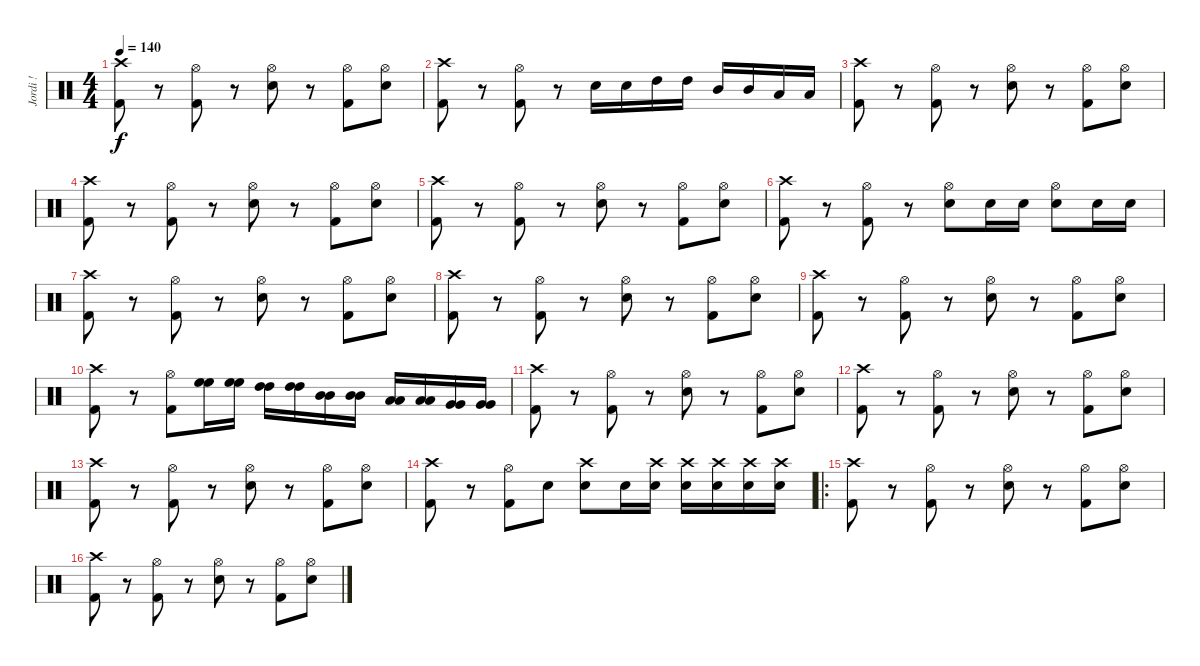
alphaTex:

\track ("Jordi !" "Jordi !") {instrument percussion}
\staff {score}
\articulation defaults
\ts (4 4)
\tempo 140
\clef neutral
\ks c
("Crash high (hit)" "Kick (hit) 2").8{dy f} r.8 ("Hi-Hat (open)" "Kick (hit) 2").8 r.8 ("Hi-Hat (open)" "Electric Snare (hit)").8 r.8 ("Hi-Hat (open)" "Kick (hit) 2").8 ("Hi-Hat (open)" "Electric Snare (hit)").8 |
("Crash high (hit)" "Kick (hit) 2").8 r.8 ("Hi-Hat (open)" "Kick (hit) 2").8 r.8 "Electric Snare (hit)".16 "Electric Snare (hit)".16 "High Tom (hit)".16 "High Tom (hit)".16 "Mid Tom (hit)".16 "Mid Tom (hit)".16 "Low Tom (hit)".16 "Low Tom (hit)".16 |
("Crash high (hit)" "Kick (hit) 2").8 r.8 ("Hi-Hat (open)" "Kick (hit) 2").8 r.8 ("Hi-Hat (open)" "Electric Snare (hit)").8 r.8 ("Hi-Hat (open)" "Kick (hit) 2").8 ("Hi-Hat (open)" "Electric Snare (hit)").8 |
("Crash high (hit)" "Kick (hit) 2").8 r.8 ("Hi-Hat (open)" "Kick (hit) 2").8 r.8 ("Hi-Hat (open)" "Electric Snare (hit)").8 r.8 ("Hi-Hat (open)" "Kick (hit) 2").8 ("Hi-Hat (open)" "Electric Snare (hit)").8 |
("Crash high (hit)" "Kick (hit) 2").8 r.8 ("Hi-Hat (open)" "Kick (hit) 2").8 r.8 ("Hi-Hat (open)" "Electric Snare (hit)").8 r.8 ("Hi-Hat (open)" "Kick (hit) 2").8 ("Hi-Hat (open)" "Electric Snare (hit)").8 |
("Crash high (hit)" "Kick (hit) 2").8 r.8 ("Hi-Hat (open)" "Kick (hit) 2").8 r.8 ("Hi-Hat (open)" "Electric Snare (hit)").8 "Electric Snare (hit)".16 "Electric Snare (hit)".16 ("Hi-Hat (open)" "Electric Snare (hit)").8 "Electric Snare (hit)".16 "Electric Snare (hit)".16 |
("Crash high (hit)" "Kick (hit) 2").8 r.8 ("Hi-Hat (open)" "Kick (hit) 2").8 r.8 ("Hi-Hat (open)" "Electric Snare (hit)").8 r.8 ("Hi-Hat (open)" "Kick (hit) 2").8 ("Hi-Hat (open)" "Electric Snare (hit)").8 |
("Crash high (hit)" "Kick (hit) 2").8 r.8 ("Hi-Hat (open)" "Kick (hit) 2").8 r.8 ("Hi-Hat (open)" "Electric Snare (hit)").8 r.8 ("Hi-Hat (open)" "Kick (hit) 2").8 ("Hi-Hat (open)" "Electric Snare (hit)").8 |
("Crash high (hit)" "Kick (hit) 2").8 r.8 ("Hi-Hat (open)" "Kick (hit) 2").8 r.8 ("Hi-Hat (open)" "Electric Snare (hit)").8 r.8 ("Hi-Hat (open)" "Kick (hit) 2").8 ("Hi-Hat (open)" "Electric Snare (hit)").8 |
("Crash high (hit)" "Kick (hit) 2").8 r.8 ("Hi-Hat (open)" "Kick (hit) 2").8 ("High Floor Tom (hit)" "High Floor Tom (hit)").16 ("High Floor Tom (hit)" "High Floor Tom (hit)").16 ("High Tom (hit)" "High Tom (hit)").16 ("High Tom (hit)" "High Tom (hit)").16 ("Mid Tom (hit)" "Mid Tom (hit)").16 ("Mid Tom (hit)" "Mid Tom (hit)").16 ("Low Tom (hit)" "Low Tom (hit)").16 ("Low Tom (hit)" "Low Tom (hit)").16 ("Very Low Tom (hit)" "Very Low Tom (hit)").16 ("Very Low Tom (hit)" "Very Low Tom (hit)").16 |
("Crash high (hit)" "Kick (hit) 2").8 r.8 ("Hi-Hat (open)" "Kick (hit) 2").8 r.8 ("Hi-Hat (open)" "Electric Snare (hit)").8 r.8 ("Hi-Hat (open)" "Kick (hit) 2").8 ("Hi-Hat (open)" "Electric Snare (hit)").8 |
("Crash high (hit)" "Kick (hit) 2").8 r.8 ("Hi-Hat (open)" "Kick (hit) 2").8 r.8 ("Hi-Hat (open)" "Electric Snare (hit)").8 r.8 ("Hi-Hat (open)" "Kick (hit) 2").8 ("Hi-Hat (open)" "Electric Snare (hit)").8 |
("Crash high (hit)" "Kick (hit) 2").8 r.8 ("Hi-Hat (open)" "Kick (hit) 2").8 r.8 ("Hi-Hat (open)" "Electric Snare (hit)").8 r.8 ("Hi-Hat (open)" "Kick (hit) 2").8 ("Hi-Hat (open)" "Electric Snare (hit)").8 |
("Crash high (hit)" "Kick (hit) 2").8 r.8 ("Hi-Hat (open)" "Kick (hit) 2").8 "Electric Snare (hit)".8 ("Crash high (hit)" "Electric Snare (hit)").8 "Electric Snare (hit)".16 ("Crash high (hit)" "Electric Snare (hit)").16 ("Crash high (hit)" "Electric Snare (hit)").16 ("Crash high (hit)" "Electric Snare (hit)").16 ("Crash high (hit)" "Electric Snare (hit)").16 ("Crash high (hit)" "Electric Snare (hit)").16 |
\ro
("Crash high (hit)" "Kick (hit) 2").8 r.8 ("Hi-Hat (open)" "Kick (hit) 2").8 r.8 ("Hi-Hat (open)" "Electric Snare (hit)").8 r.8 ("Hi-Hat (open)" "Kick (hit) 2").8 ("Hi-Hat (open)" "Electric Snare (hit)").8 |
("Crash high (hit)" "Kick (hit) 2").8 r.8 ("Hi-Hat (open)" "Kick (hit) 2").8 r.8 ("Hi-Hat (open)" "Electric Snare (hit)").8 r.8 ("Hi-Hat (open)" "Kick (hit) 2").8 ("Hi-Hat (open)" "Electric Snare (hit)").8
